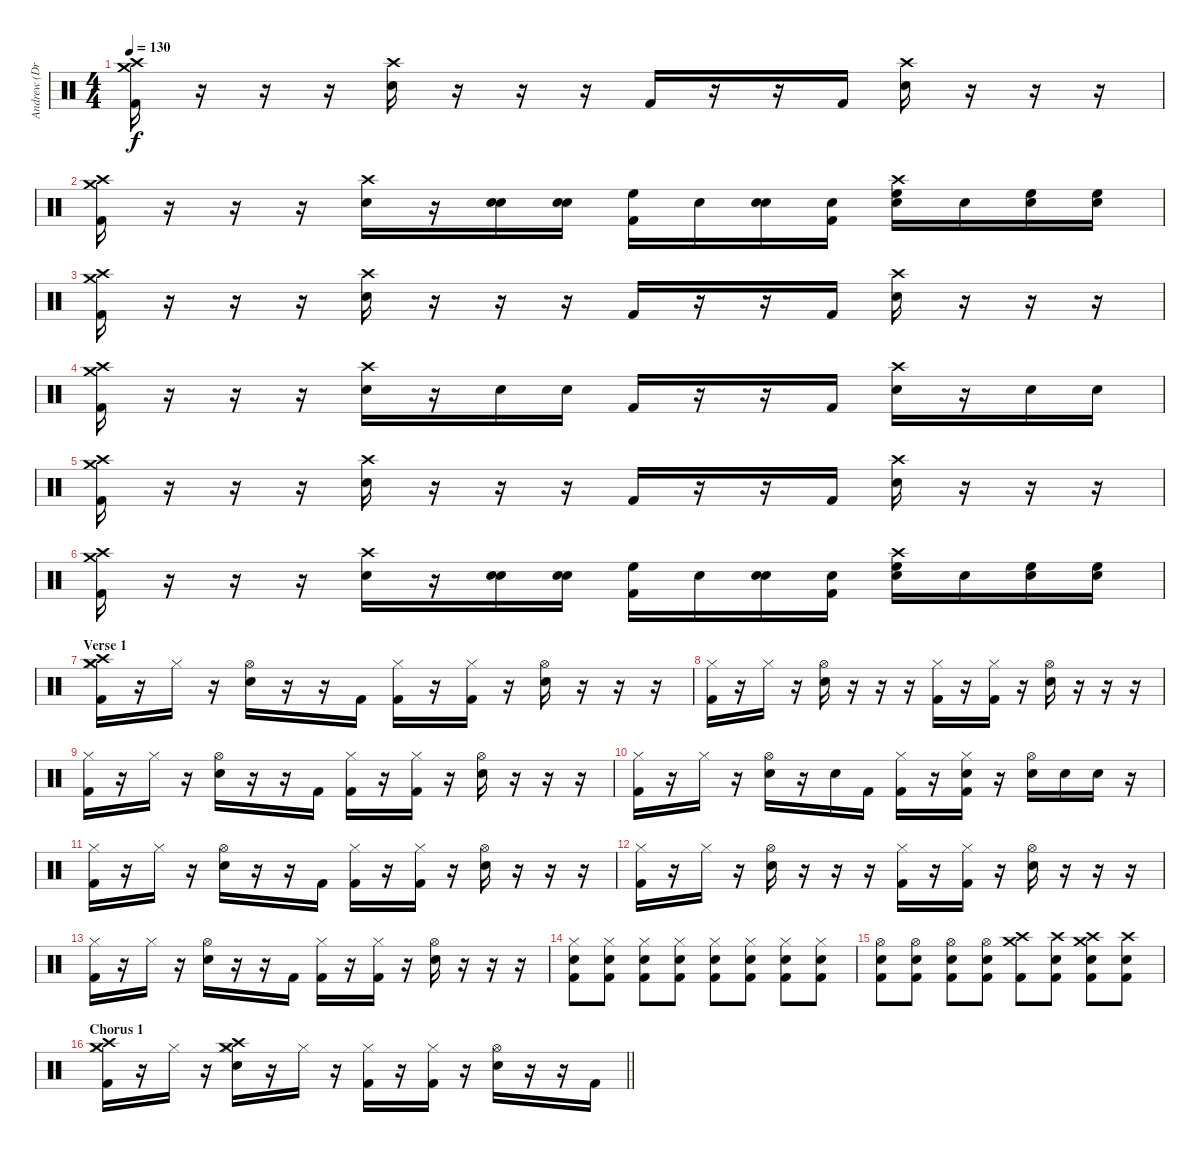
\track ("Andrew (Drums)" "Andrew (Dr") {instrument percussion}
\staff {score}
\articulation defaults
\ts (4 4)
\tempo 130
\clef neutral
\ks c
("Crash medium (hit)" "Crash high (hit)" "Kick (hit) 2").16{dy f} r.16 r.16 r.16 ("Crash high (hit)" "Snare (hit) 2").16 r.16 r.16 r.16 "Kick (hit) 2".16 r.16 r.16 "Kick (hit) 2".16 ("Crash high (hit)" "Snare (hit) 2").16 r.16 r.16 r.16 |
("Crash medium (hit)" "Crash high (hit)" "Kick (hit) 2").16 r.16 r.16 r.16 ("Crash high (hit)" "Snare (hit) 2").16 r.16 ("Snare (hit) 2" "Snare (hit) 2").16 ("Snare (hit) 2" "Snare (hit) 2").16 ("High Floor Tom (hit)" "Kick (hit) 2").16 "Snare (hit) 2".16 ("Snare (hit) 2" "Snare (hit) 2").16 ("Snare (hit) 2" "Kick (hit) 2").16 ("Crash high (hit)" "High Floor Tom (hit)" "Snare (hit) 2").16 "Snare (hit) 2".16 ("High Floor Tom (hit)" "Snare (hit) 2").16 ("High Floor Tom (hit)" "Snare (hit) 2").16 |
("Crash medium (hit)" "Crash high (hit)" "Kick (hit) 2").16 r.16 r.16 r.16 ("Crash high (hit)" "Snare (hit) 2").16 r.16 r.16 r.16 "Kick (hit) 2".16 r.16 r.16 "Kick (hit) 2".16 ("Crash high (hit)" "Snare (hit) 2").16 r.16 r.16 r.16 |
("Crash medium (hit)" "Crash high (hit)" "Kick (hit) 2").16 r.16 r.16 r.16 ("Crash high (hit)" "Snare (hit) 2").16 r.16 "Snare (hit) 2".16 "Snare (hit) 2".16 "Kick (hit) 2".16 r.16 r.16 "Kick (hit) 2".16 ("Crash high (hit)" "Snare (hit) 2").16 r.16 "Snare (hit) 2".16 "Snare (hit) 2".16 |
("Crash medium (hit)" "Crash high (hit)" "Kick (hit) 2").16 r.16 r.16 r.16 ("Crash high (hit)" "Snare (hit) 2").16 r.16 r.16 r.16 "Kick (hit) 2".16 r.16 r.16 "Kick (hit) 2".16 ("Crash high (hit)" "Snare (hit) 2").16 r.16 r.16 r.16 |
("Crash medium (hit)" "Crash high (hit)" "Kick (hit) 2").16 r.16 r.16 r.16 ("Crash high (hit)" "Snare (hit) 2").16 r.16 ("Snare (hit) 2" "Snare (hit) 2").16 ("Snare (hit) 2" "Snare (hit) 2").16 ("High Floor Tom (hit)" "Kick (hit) 2").16 "Snare (hit) 2".16 ("Snare (hit) 2" "Snare (hit) 2").16 ("Snare (hit) 2" "Kick (hit) 2").16 ("Crash high (hit)" "High Floor Tom (hit)" "Snare (hit) 2").16 "Snare (hit) 2".16 ("High Floor Tom (hit)" "Snare (hit) 2").16 ("High Floor Tom (hit)" "Snare (hit) 2").16 |
\section ("" "Verse 1")
("Crash high (hit)" "Crash medium (hit)" "Hi-Hat (closed)" "Kick (hit) 2").16 r.16 "Hi-Hat (closed)".16 r.16 ("Hi-Hat (open)" "Snare (hit) 2").16 r.16 r.16 "Kick (hit) 2".16 ("Hi-Hat (closed)" "Kick (hit) 2").16 r.16 ("Hi-Hat (closed)" "Kick (hit) 2").16 r.16 ("Hi-Hat (open)" "Snare (hit) 2").16 r.16 r.16 r.16 |
("Hi-Hat (closed)" "Kick (hit) 2").16 r.16 "Hi-Hat (closed)".16 r.16 ("Hi-Hat (open)" "Snare (hit) 2").16 r.16 r.16 r.16 ("Hi-Hat (closed)" "Kick (hit) 2").16 r.16 ("Hi-Hat (closed)" "Kick (hit) 2").16 r.16 ("Hi-Hat (open)" "Snare (hit) 2").16 r.16 r.16 r.16 |
("Hi-Hat (closed)" "Kick (hit) 2").16 r.16 "Hi-Hat (closed)".16 r.16 ("Hi-Hat (open)" "Snare (hit) 2").16 r.16 r.16 "Kick (hit) 2".16 ("Hi-Hat (closed)" "Kick (hit) 2").16 r.16 ("Hi-Hat (closed)" "Kick (hit) 2").16 r.16 ("Hi-Hat (open)" "Snare (hit) 2").16 r.16 r.16 r.16 |
("Hi-Hat (closed)" "Kick (hit) 2").16 r.16 "Hi-Hat (closed)".16 r.16 ("Hi-Hat (open)" "Snare (hit) 2").16 r.16 "Snare (hit) 2".16 "Kick (hit) 2".16 ("Hi-Hat (closed)" "Kick (hit) 2").16 r.16 ("Hi-Hat (closed)" "Snare (hit) 2" "Kick (hit) 2").16 r.16 ("Hi-Hat (open)" "Snare (hit) 2").16 "Snare (hit) 2".16 "Snare (hit) 2".16 r.16 |
("Hi-Hat (closed)" "Kick (hit) 2").16 r.16 "Hi-Hat (closed)".16 r.16 ("Hi-Hat (open)" "Snare (hit) 2").16 r.16 r.16 "Kick (hit) 2".16 ("Hi-Hat (closed)" "Kick (hit) 2").16 r.16 ("Hi-Hat (closed)" "Kick (hit) 2").16 r.16 ("Hi-Hat (open)" "Snare (hit) 2").16 r.16 r.16 r.16 |
("Hi-Hat (closed)" "Kick (hit) 2").16 r.16 "Hi-Hat (closed)".16 r.16 ("Hi-Hat (open)" "Snare (hit) 2").16 r.16 r.16 r.16 ("Hi-Hat (closed)" "Kick (hit) 2").16 r.16 ("Hi-Hat (closed)" "Kick (hit) 2").16 r.16 ("Hi-Hat (open)" "Snare (hit) 2").16 r.16 r.16 r.16 |
("Hi-Hat (closed)" "Kick (hit) 2").16 r.16 "Hi-Hat (closed)".16 r.16 ("Hi-Hat (open)" "Snare (hit) 2").16 r.16 r.16 "Kick (hit) 2".16 ("Hi-Hat (closed)" "Kick (hit) 2").16 r.16 ("Hi-Hat (closed)" "Kick (hit) 2").16 r.16 ("Hi-Hat (open)" "Snare (hit) 2").16 r.16 r.16 r.16 |
("Hi-Hat (closed)" "Snare (hit) 2" "Kick (hit) 2").8 ("Hi-Hat (closed)" "Snare (hit) 2" "Kick (hit) 2").8 ("Hi-Hat (closed)" "Snare (hit) 2" "Kick (hit) 2").8 ("Hi-Hat (closed)" "Snare (hit) 2" "Kick (hit) 2").8 ("Hi-Hat (closed)" "Snare (hit) 2" "Kick (hit) 2").8 ("Hi-Hat (closed)" "Snare (hit) 2" "Kick (hit) 2").8 ("Hi-Hat (closed)" "Snare (hit) 2" "Kick (hit) 2").8 ("Hi-Hat (closed)" "Snare (hit) 2" "Kick (hit) 2").8 |
("Hi-Hat (open)" "Snare (hit) 2" "Kick (hit) 2").8 ("Hi-Hat (open)" "Snare (hit) 2" "Kick (hit) 2").8 ("Hi-Hat (open)" "Snare (hit) 2" "Kick (hit) 2").8 ("Hi-Hat (open)" "Snare (hit) 2" "Kick (hit) 2").8 ("Crash medium (hit)" "Crash high (hit)" "Kick (hit) 2").8 ("Crash high (hit)" "Snare (hit) 2" "Kick (hit) 2").8 ("Crash medium (hit)" "Crash high (hit)" "Snare (hit) 2" "Kick (hit) 2").8 ("Crash high (hit)" "Snare (hit) 2" "Kick (hit) 2").8 |
\section ("" "Chorus 1")
\barLineRight lightlight
("Crash high (hit)" "Crash medium (hit)" "Hi-Hat (closed)" "Kick (hit) 2").16 r.16 "Hi-Hat (closed)".16 r.16 ("Crash high (hit)" "Crash medium (hit)" "Hi-Hat (closed)" "Snare (hit) 2").16 r.16 "Hi-Hat (closed)".16 r.16 ("Hi-Hat (closed)" "Kick (hit) 2").16 r.16 ("Hi-Hat (closed)" "Kick (hit) 2").16 r.16 ("Hi-Hat (open)" "Snare (hit) 2").16 r.16 r.16 "Kick (hit) 2".16
